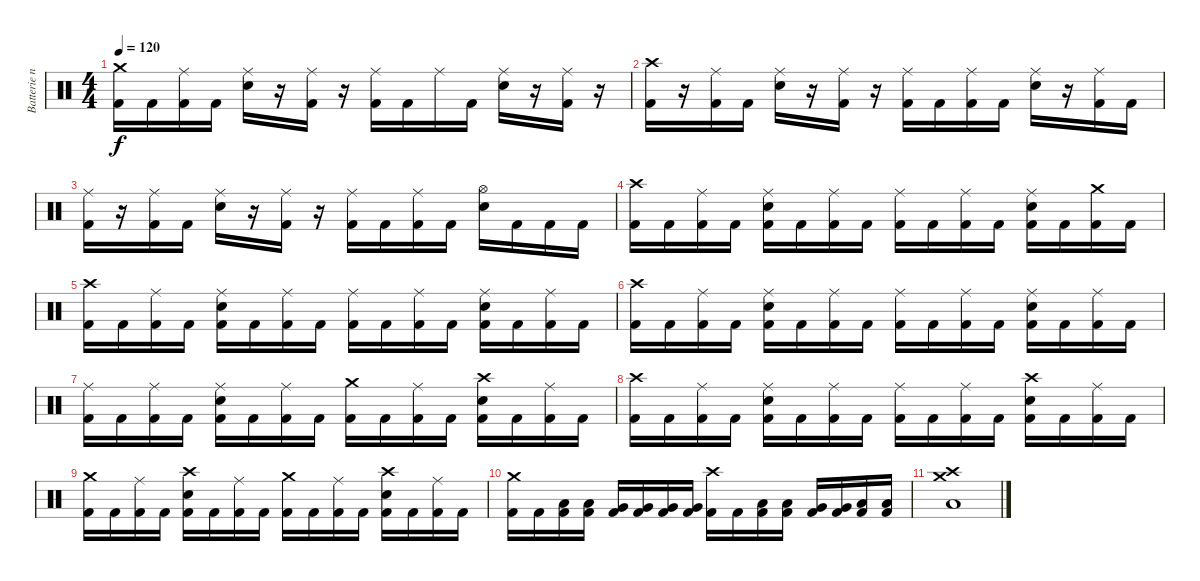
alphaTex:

\track ("Batterie n°3" "Batterie n") {instrument percussion}
\staff {score}
\articulation defaults
\ts (4 4)
\tempo 120
\clef neutral
\ks c
("Crash medium (hit)" "Kick (hit) 2").16{dy f} "Kick (hit) 2".16 ("Ride (middle)" "Kick (hit) 2").16 "Kick (hit) 2".16 ("Ride (middle)" "Snare (hit) 2").16 r.16 ("Ride (middle)" "Kick (hit) 2").16 r.16 ("Ride (middle)" "Kick (hit) 2").16 "Kick (hit) 2".16 "Ride (middle)".16 "Kick (hit) 2".16 ("Ride (middle)" "Snare (hit) 2").16 r.16 ("Ride (middle)" "Kick (hit) 2").16 r.16 |
("Crash high (hit)" "Kick (hit) 2").16 r.16 ("Ride (middle)" "Kick (hit) 2").16 "Kick (hit) 2".16 ("Ride (middle)" "Snare (hit) 2").16 r.16 ("Ride (middle)" "Kick (hit) 2").16 r.16 ("Ride (middle)" "Kick (hit) 2").16 "Kick (hit) 2".16 ("Ride (middle)" "Kick (hit) 2").16 "Kick (hit) 2".16 ("Ride (middle)" "Snare (hit) 2").16 r.16 ("Ride (middle)" "Kick (hit) 2").16 "Kick (hit) 2".16 |
("Ride (middle)" "Kick (hit) 2").16 r.16 ("Ride (middle)" "Kick (hit) 2").16 "Kick (hit) 2".16 ("Ride (middle)" "Snare (hit) 2").16 r.16 ("Ride (middle)" "Kick (hit) 2").16 r.16 ("Ride (middle)" "Kick (hit) 2").16 "Kick (hit) 2".16 ("Ride (middle)" "Kick (hit) 2").16 "Kick (hit) 2".16 ("Hi-Hat (open)" "Snare (hit) 2").16 "Kick (hit) 2".16 "Kick (hit) 2".16 "Kick (hit) 2".16 |
("Crash high (hit)" "Kick (hit) 2").16 "Kick (hit) 2".16 ("Ride (middle)" "Kick (hit) 2").16 "Kick (hit) 2".16 ("Ride (middle)" "Snare (hit) 2" "Kick (hit) 2").16 "Kick (hit) 2".16 ("Ride (middle)" "Kick (hit) 2").16 "Kick (hit) 2".16 ("Ride (middle)" "Kick (hit) 2").16 "Kick (hit) 2".16 ("Ride (middle)" "Kick (hit) 2").16 "Kick (hit) 2".16 ("Ride (middle)" "Snare (hit) 2" "Kick (hit) 2").16 "Kick (hit) 2".16 ("Crash medium (hit)" "Kick (hit) 2").16 "Kick (hit) 2".16 |
("Crash high (hit)" "Kick (hit) 2").16 "Kick (hit) 2".16 ("Ride (middle)" "Kick (hit) 2").16 "Kick (hit) 2".16 ("Ride (middle)" "Snare (hit) 2" "Kick (hit) 2").16 "Kick (hit) 2".16 ("Ride (middle)" "Kick (hit) 2").16 "Kick (hit) 2".16 ("Ride (middle)" "Kick (hit) 2").16 "Kick (hit) 2".16 ("Ride (middle)" "Kick (hit) 2").16 "Kick (hit) 2".16 ("Ride (middle)" "Snare (hit) 2" "Kick (hit) 2").16 "Kick (hit) 2".16 ("Ride (middle)" "Kick (hit) 2").16 "Kick (hit) 2".16 |
("Crash high (hit)" "Kick (hit) 2").16 "Kick (hit) 2".16 ("Ride (middle)" "Kick (hit) 2").16 "Kick (hit) 2".16 ("Ride (middle)" "Snare (hit) 2" "Kick (hit) 2").16 "Kick (hit) 2".16 ("Ride (middle)" "Kick (hit) 2").16 "Kick (hit) 2".16 ("Ride (middle)" "Kick (hit) 2").16 "Kick (hit) 2".16 ("Ride (middle)" "Kick (hit) 2").16 "Kick (hit) 2".16 ("Ride (middle)" "Snare (hit) 2" "Kick (hit) 2").16 "Kick (hit) 2".16 ("Ride (middle)" "Kick (hit) 2").16 "Kick (hit) 2".16 |
("Ride (middle)" "Kick (hit) 2").16 "Kick (hit) 2".16 ("Ride (middle)" "Kick (hit) 2").16 "Kick (hit) 2".16 ("Ride (middle)" "Snare (hit) 2" "Kick (hit) 2").16 "Kick (hit) 2".16 ("Ride (middle)" "Kick (hit) 2").16 "Kick (hit) 2".16 ("Crash medium (hit)" "Kick (hit) 2").16 "Kick (hit) 2".16 ("Ride (middle)" "Kick (hit) 2").16 "Kick (hit) 2".16 ("Crash high (hit)" "Snare (hit) 2" "Kick (hit) 2").16 "Kick (hit) 2".16 ("Ride (middle)" "Kick (hit) 2").16 "Kick (hit) 2".16 |
("Crash high (hit)" "Kick (hit) 2").16 "Kick (hit) 2".16 ("Ride (middle)" "Kick (hit) 2").16 "Kick (hit) 2".16 ("Ride (middle)" "Snare (hit) 2" "Kick (hit) 2").16 "Kick (hit) 2".16 ("Ride (middle)" "Kick (hit) 2").16 "Kick (hit) 2".16 ("Ride (middle)" "Kick (hit) 2").16 "Kick (hit) 2".16 ("Ride (middle)" "Kick (hit) 2").16 "Kick (hit) 2".16 ("Crash high (hit)" "Snare (hit) 2" "Kick (hit) 2").16 "Kick (hit) 2".16 ("Ride (middle)" "Kick (hit) 2").16 "Kick (hit) 2".16 |
("Crash medium (hit)" "Kick (hit) 2").16 "Kick (hit) 2".16 ("Ride (middle)" "Kick (hit) 2").16 "Kick (hit) 2".16 ("Crash high (hit)" "Snare (hit) 2" "Kick (hit) 2").16 "Kick (hit) 2".16 ("Ride (middle)" "Kick (hit) 2").16 "Kick (hit) 2".16 ("Crash medium (hit)" "Kick (hit) 2").16 "Kick (hit) 2".16 ("Ride (middle)" "Kick (hit) 2").16 "Kick (hit) 2".16 ("Crash high (hit)" "Snare (hit) 2" "Kick (hit) 2").16 "Kick (hit) 2".16 ("Ride (middle)" "Kick (hit) 2").16 "Kick (hit) 2".16 |
("Crash medium (hit)" "Kick (hit) 2").16 "Kick (hit) 2".16 ("Low Tom (hit)" "Kick (hit) 2").16 ("Low Tom (hit)" "Kick (hit) 2").16 ("Very Low Tom (hit)" "Kick (hit) 2").16 ("Very Low Tom (hit)" "Kick (hit) 2").16 ("Very Low Tom (hit)" "Kick (hit) 2").16 ("Very Low Tom (hit)" "Kick (hit) 2").16 ("Crash high (hit)" "Kick (hit) 2").16 "Kick (hit) 2".16 ("Low Tom (hit)" "Kick (hit) 2").16 ("Low Tom (hit)" "Kick (hit) 2").16 ("Very Low Tom (hit)" "Kick (hit) 2").16 ("Very Low Tom (hit)" "Kick (hit) 2").16 ("Low Floor Tom (hit)" "Kick (hit) 2").16 ("Low Floor Tom (hit)" "Kick (hit) 2").16 |
("Crash medium (hit)" "Crash high (hit)" "Low Floor Tom (hit)").1
